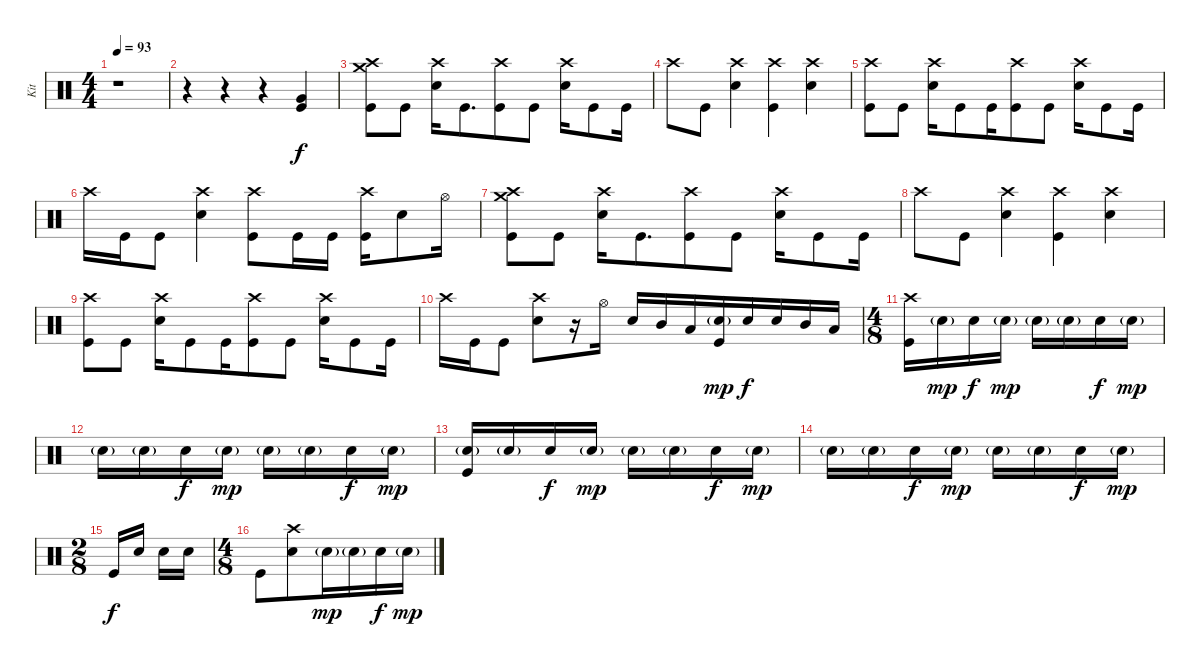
\track ("Kit" "Kit") {instrument percussion}
\staff {score}
\articulation defaults
\ts (4 4)
\tempo 93
\clef neutral
\ks c
r.1{dy f} |
\ks aminor
r.4 r.4{beam merge} r.4 ("Very Low Tom (hit)" "Kick (hit)").4 |
("Crash high (hit)" "Crash medium (hit)" "Kick (hit)").8{beam merge} "Kick (hit)".8 ("Crash high (hit)" "Electric Snare (hit)").16 "Kick (hit)".8{d beam merge} ("Crash high (hit)" "Kick (hit)").8{beam merge} "Kick (hit)".8 ("Crash high (hit)" "Electric Snare (hit)").16 "Kick (hit)".8{beam merge} "Kick (hit)".16 |
"Crash high (hit)".8{beam merge} "Kick (hit)".8 ("Crash high (hit)" "Electric Snare (hit)").4{beam merge} ("Crash high (hit)" "Kick (hit)").4 ("Crash high (hit)" "Electric Snare (hit)").4 |
("Crash high (hit)" "Kick (hit)").8{beam merge} "Kick (hit)".8 ("Crash high (hit)" "Electric Snare (hit)").16 "Kick (hit)".8{beam merge} "Kick (hit)".16{beam merge} ("Crash high (hit)" "Kick (hit)").8{beam merge} "Kick (hit)".8 ("Crash high (hit)" "Electric Snare (hit)").16 "Kick (hit)".8{beam merge} "Kick (hit)".16 |
"Crash high (hit)".16 "Kick (hit)".16{beam merge} "Kick (hit)".8 ("Crash high (hit)" "Electric Snare (hit)").4{beam merge} ("Crash high (hit)" "Kick (hit)").8 "Kick (hit)".16 "Kick (hit)".16 ("Crash high (hit)" "Kick (hit)").16 "Electric Snare (hit)".8 "Hi-Hat (open)".16 |
("Crash high (hit)" "Crash medium (hit)" "Kick (hit)").8{beam merge} "Kick (hit)".8 ("Crash high (hit)" "Electric Snare (hit)").16 "Kick (hit)".8{d beam merge} ("Crash high (hit)" "Kick (hit)").8{beam merge} "Kick (hit)".8 ("Crash high (hit)" "Electric Snare (hit)").16 "Kick (hit)".8{beam merge} "Kick (hit)".16 |
"Crash high (hit)".8{beam merge} "Kick (hit)".8 ("Crash high (hit)" "Electric Snare (hit)").4{beam merge} ("Crash high (hit)" "Kick (hit)").4 ("Crash high (hit)" "Electric Snare (hit)").4 |
("Crash high (hit)" "Kick (hit)").8{beam merge} "Kick (hit)".8 ("Crash high (hit)" "Electric Snare (hit)").16 "Kick (hit)".8{beam merge} "Kick (hit)".16{beam merge} ("Crash high (hit)" "Kick (hit)").8{beam merge} "Kick (hit)".8 ("Crash high (hit)" "Electric Snare (hit)").16 "Kick (hit)".8{beam merge} "Kick (hit)".16 |
"Crash high (hit)".16{beam merge} "Kick (hit)".16 "Kick (hit)".8 ("Crash high (hit)" "Electric Snare (hit)").8{beam merge} r.16 "Hi-Hat (open)".16 "Electric Snare (hit)".16{beam merge} "Mid Tom (hit)".16 "Low Tom (hit)".16 ("Electric Snare (hit)"{g} "Kick (hit)").16{dy mp beam merge} "Electric Snare (hit)".16{dy f} "Electric Snare (hit)".16{beam merge} "Mid Tom (hit)".16 "Low Tom (hit)".16 |
\ts (4 8)
("Crash high (hit)" "Kick (hit)").16 "Electric Snare (hit)"{g}.16{dy mp beam merge} "Electric Snare (hit)".16{dy f beam merge} "Electric Snare (hit)"{g}.16{dy mp} "Electric Snare (hit)"{g}.16 "Electric Snare (hit)"{g}.16{beam merge} "Electric Snare (hit)".16{dy f beam merge} "Electric Snare (hit)"{g}.16{dy mp} |
"Electric Snare (hit)"{g}.16 "Electric Snare (hit)"{g}.16 "Electric Snare (hit)".16{dy f} "Electric Snare (hit)"{g}.16{dy mp} "Electric Snare (hit)"{g}.16 "Electric Snare (hit)"{g}.16 "Electric Snare (hit)".16{dy f} "Electric Snare (hit)"{g}.16{dy mp} |
("Electric Snare (hit)"{g} "Kick (hit)").16 "Electric Snare (hit)"{g}.16 "Electric Snare (hit)".16{dy f} "Electric Snare (hit)"{g}.16{dy mp} "Electric Snare (hit)"{g}.16 "Electric Snare (hit)"{g}.16 "Electric Snare (hit)".16{dy f} "Electric Snare (hit)"{g}.16{dy mp} |
"Electric Snare (hit)"{g}.16 "Electric Snare (hit)"{g}.16 "Electric Snare (hit)".16{dy f} "Electric Snare (hit)"{g}.16{dy mp} "Electric Snare (hit)"{g}.16 "Electric Snare (hit)"{g}.16 "Electric Snare (hit)".16{dy f} "Electric Snare (hit)"{g}.16{dy mp} |
\ts (2 8)
"Kick (hit)".16{dy f} "Electric Snare (hit)".16 "Electric Snare (hit)".16{beam merge} "Electric Snare (hit)".16 |
\ts (4 8)
"Kick (hit)".8{beam merge} ("Crash high (hit)" "Electric Snare (hit)").8{beam merge} "Electric Snare (hit)"{g}.16{dy mp beam merge} "Electric Snare (hit)"{g}.16{beam merge} "Electric Snare (hit)".16{dy f beam merge} "Electric Snare (hit)"{g}.16{dy mp}
